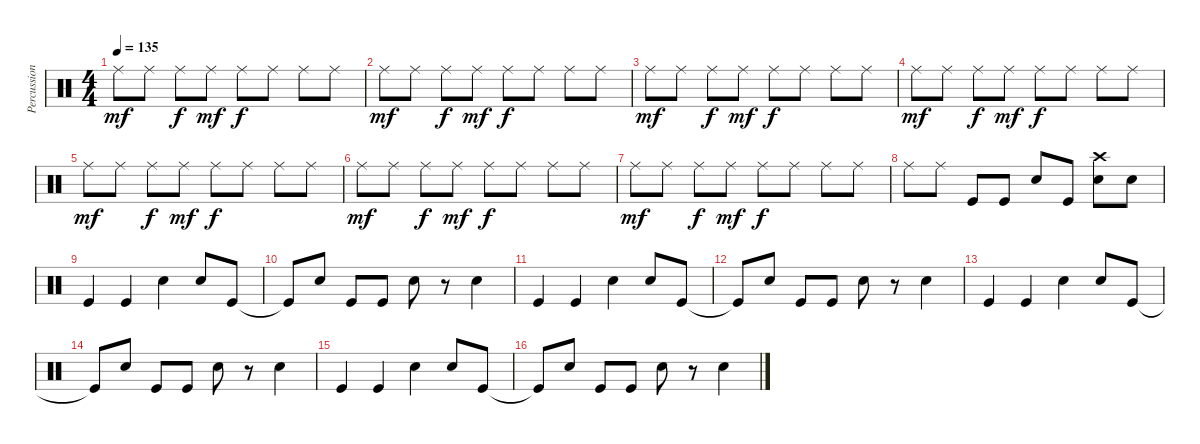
\track ("Percussion" "Percussion") {instrument percussion}
\staff {score}
\articulation defaults
\ts (4 4)
\tempo 135
\clef neutral
\ks c "Ride (middle)".8{dy mf} "Ride (middle)".8 "Ride (middle)".8{dy f} "Ride (middle)".8{dy mf} "Ride (middle)".8{dy f} "Ride (middle)".8 "Ride (middle)".8 "Ride (middle)".8
|
"Ride (middle)".8{dy mf} "Ride (middle)".8 "Ride (middle)".8{dy f} "Ride (middle)".8{dy mf} "Ride (middle)".8{dy f} "Ride (middle)".8 "Ride (middle)".8 "Ride (middle)".8 |
"Ride (middle)".8{dy mf} "Ride (middle)".8 "Ride (middle)".8{dy f} "Ride (middle)".8{dy mf} "Ride (middle)".8{dy f} "Ride (middle)".8 "Ride (middle)".8 "Ride (middle)".8 |
"Ride (middle)".8{dy mf} "Ride (middle)".8 "Ride (middle)".8{dy f} "Ride (middle)".8{dy mf} "Ride (middle)".8{dy f} "Ride (middle)".8 "Ride (middle)".8 "Ride (middle)".8 |
"Ride (middle)".8{dy mf} "Ride (middle)".8 "Ride (middle)".8{dy f} "Ride (middle)".8{dy mf} "Ride (middle)".8{dy f} "Ride (middle)".8 "Ride (middle)".8 "Ride (middle)".8 |
"Ride (middle)".8{dy mf} "Ride (middle)".8 "Ride (middle)".8{dy f} "Ride (middle)".8{dy mf} "Ride (middle)".8{dy f} "Ride (middle)".8 "Ride (middle)".8 "Ride (middle)".8 |
"Ride (middle)".8{dy mf} "Ride (middle)".8 "Ride (middle)".8{dy f} "Ride (middle)".8{dy mf} "Ride (middle)".8{dy f} "Ride (middle)".8 "Ride (middle)".8 "Ride (middle)".8 |
"Ride (middle)".8 "Ride (middle)".8 "Kick (hit)".8 "Kick (hit)".8 "Snare (hit) 2".8 "Kick (hit)".8 ("Crash high (hit)" "Snare (hit) 2").8 "Snare (hit) 2".8 |
"Kick (hit)".4 "Kick (hit)".4 "Snare (hit) 2".4 "Snare (hit) 2".8 "Kick (hit)".8 |
"Kick (hit)"{t}.8 "Snare (hit) 2".8 "Kick (hit)".8 "Kick (hit)".8 "Snare (hit) 2".8 r.8 "Snare (hit) 2".4 |
"Kick (hit)".4 "Kick (hit)".4 "Snare (hit) 2".4 "Snare (hit) 2".8 "Kick (hit)".8 |
"Kick (hit)"{t}.8 "Snare (hit) 2".8 "Kick (hit)".8 "Kick (hit)".8 "Snare (hit) 2".8 r.8 "Snare (hit) 2".4 |
"Kick (hit)".4 "Kick (hit)".4 "Snare (hit) 2".4 "Snare (hit) 2".8 "Kick (hit)".8 |
"Kick (hit)"{t}.8 "Snare (hit) 2".8 "Kick (hit)".8 "Kick (hit)".8 "Snare (hit) 2".8 r.8 "Snare (hit) 2".4 |
"Kick (hit)".4 "Kick (hit)".4 "Snare (hit) 2".4 "Snare (hit) 2".8 "Kick (hit)".8 |
"Kick (hit)"{t}.8 "Snare (hit) 2".8 "Kick (hit)".8 "Kick (hit)".8 "Snare (hit) 2".8 r.8 "Snare (hit) 2".4
